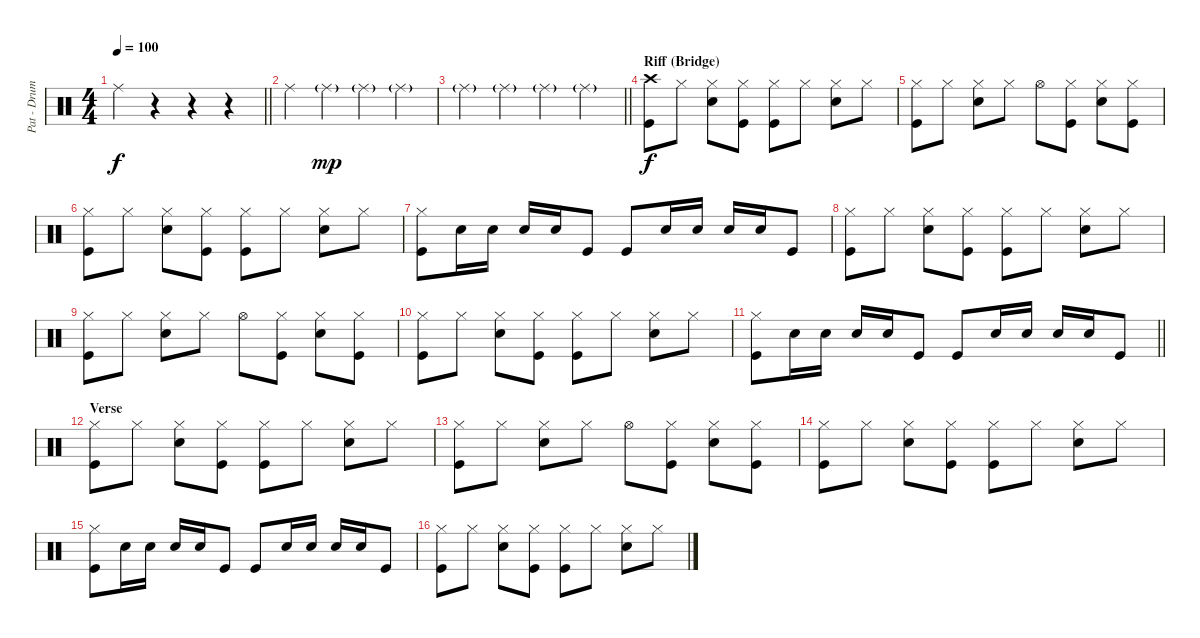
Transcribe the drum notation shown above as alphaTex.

\track ("Pat - Drums" "Pat - Drum") {instrument percussion}
\staff {score}
\articulation defaults
\ts (4 4)
\tempo 100
\clef neutral
\barLineRight lightlight
\ks c "Ride (middle)".4{dy f}
r.4 r.4 r.4 |
"Ride (middle)".4 "Ride (middle)"{g}.4{dy mp} "Ride (middle)"{g}.4 "Ride (middle)"{g}.4 |
\barLineRight lightlight "Ride (middle)"{g}.4 "Ride (middle)"{g}.4 "Ride (middle)"{g}.4 "Ride (middle)"{g}.4
|
\section ("" "Riff (Bridge)")
("Crash high (hit)" "Kick (hit)").8{dy f} "Hi-Hat (closed)".8 ("Hi-Hat (closed)" "Electric Snare (hit)").8 ("Hi-Hat (closed)" "Kick (hit)").8 ("Hi-Hat (closed)" "Kick (hit)").8 "Hi-Hat (closed)".8 ("Hi-Hat (closed)" "Electric Snare (hit)").8 "Hi-Hat (closed)".8 |
("Hi-Hat (closed)" "Kick (hit)").8 "Hi-Hat (closed)".8 ("Hi-Hat (closed)" "Electric Snare (hit)").8 "Hi-Hat (closed)".8 "Hi-Hat (open)".8 ("Hi-Hat (closed)" "Kick (hit)").8 ("Hi-Hat (closed)" "Electric Snare (hit)").8 ("Hi-Hat (closed)" "Kick (hit)").8 |
("Hi-Hat (closed)" "Kick (hit)").8 "Hi-Hat (closed)".8 ("Hi-Hat (closed)" "Electric Snare (hit)").8 ("Hi-Hat (closed)" "Kick (hit)").8 ("Hi-Hat (closed)" "Kick (hit)").8 "Hi-Hat (closed)".8 ("Hi-Hat (closed)" "Electric Snare (hit)").8 "Hi-Hat (closed)".8 |
("Hi-Hat (closed)" "Kick (hit)").8 "Electric Snare (hit)".16 "Electric Snare (hit)".16 "Electric Snare (hit)".16 "Electric Snare (hit)".16 "Kick (hit)".8 "Kick (hit)".8 "Electric Snare (hit)".16 "Electric Snare (hit)".16 "Electric Snare (hit)".16 "Electric Snare (hit)".16 "Kick (hit)".8 |
("Hi-Hat (closed)" "Kick (hit)").8 "Hi-Hat (closed)".8 ("Hi-Hat (closed)" "Electric Snare (hit)").8 ("Hi-Hat (closed)" "Kick (hit)").8 ("Hi-Hat (closed)" "Kick (hit)").8 "Hi-Hat (closed)".8 ("Hi-Hat (closed)" "Electric Snare (hit)").8 "Hi-Hat (closed)".8 |
("Hi-Hat (closed)" "Kick (hit)").8 "Hi-Hat (closed)".8 ("Hi-Hat (closed)" "Electric Snare (hit)").8 "Hi-Hat (closed)".8 "Hi-Hat (open)".8 ("Hi-Hat (closed)" "Kick (hit)").8 ("Hi-Hat (closed)" "Electric Snare (hit)").8 ("Hi-Hat (closed)" "Kick (hit)").8 |
("Hi-Hat (closed)" "Kick (hit)").8 "Hi-Hat (closed)".8 ("Hi-Hat (closed)" "Electric Snare (hit)").8 ("Hi-Hat (closed)" "Kick (hit)").8 ("Hi-Hat (closed)" "Kick (hit)").8 "Hi-Hat (closed)".8 ("Hi-Hat (closed)" "Electric Snare (hit)").8 "Hi-Hat (closed)".8 |
\barLineRight lightlight
("Hi-Hat (closed)" "Kick (hit)").8 "Electric Snare (hit)".16 "Electric Snare (hit)".16 "Electric Snare (hit)".16 "Electric Snare (hit)".16 "Kick (hit)".8 "Kick (hit)".8 "Electric Snare (hit)".16 "Electric Snare (hit)".16 "Electric Snare (hit)".16 "Electric Snare (hit)".16 "Kick (hit)".8 |
\section ("" "Verse")
("Hi-Hat (closed)" "Kick (hit)").8 "Hi-Hat (closed)".8 ("Hi-Hat (closed)" "Electric Snare (hit)").8 ("Hi-Hat (closed)" "Kick (hit)").8 ("Hi-Hat (closed)" "Kick (hit)").8 "Hi-Hat (closed)".8 ("Hi-Hat (closed)" "Electric Snare (hit)").8 "Hi-Hat (closed)".8 |
("Hi-Hat (closed)" "Kick (hit)").8 "Hi-Hat (closed)".8 ("Hi-Hat (closed)" "Electric Snare (hit)").8 "Hi-Hat (closed)".8 "Hi-Hat (open)".8 ("Hi-Hat (closed)" "Kick (hit)").8 ("Hi-Hat (closed)" "Electric Snare (hit)").8 ("Hi-Hat (closed)" "Kick (hit)").8 |
("Hi-Hat (closed)" "Kick (hit)").8 "Hi-Hat (closed)".8 ("Hi-Hat (closed)" "Electric Snare (hit)").8 ("Hi-Hat (closed)" "Kick (hit)").8 ("Hi-Hat (closed)" "Kick (hit)").8 "Hi-Hat (closed)".8 ("Hi-Hat (closed)" "Electric Snare (hit)").8 "Hi-Hat (closed)".8 |
("Hi-Hat (closed)" "Kick (hit)").8 "Electric Snare (hit)".16 "Electric Snare (hit)".16 "Electric Snare (hit)".16 "Electric Snare (hit)".16 "Kick (hit)".8 "Kick (hit)".8 "Electric Snare (hit)".16 "Electric Snare (hit)".16 "Electric Snare (hit)".16 "Electric Snare (hit)".16 "Kick (hit)".8 |
("Hi-Hat (closed)" "Kick (hit)").8 "Hi-Hat (closed)".8 ("Hi-Hat (closed)" "Electric Snare (hit)").8 ("Hi-Hat (closed)" "Kick (hit)").8 ("Hi-Hat (closed)" "Kick (hit)").8 "Hi-Hat (closed)".8 ("Hi-Hat (closed)" "Electric Snare (hit)").8 "Hi-Hat (closed)".8
